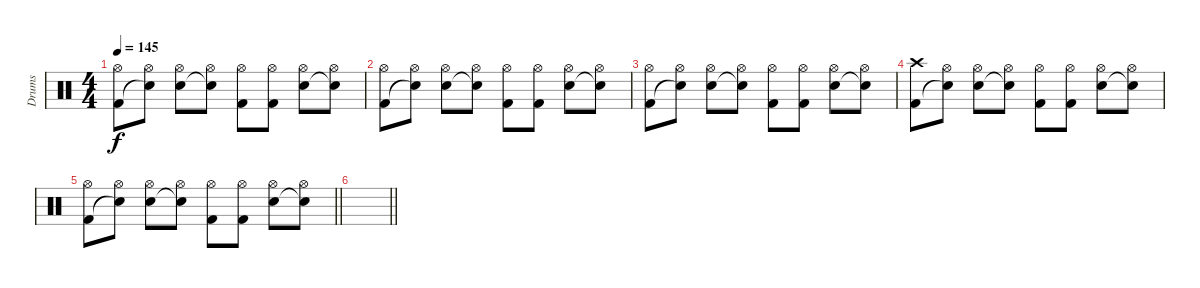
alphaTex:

\track ("Drums" "Drums") {instrument percussion}
\staff {score}
\articulation defaults
\ts (4 4)
\tempo 145
\clef neutral
\ks c
("Hi-Hat (open)" "Kick (hit) 2").8{dy f} ("Hi-Hat (open)" "Snare (hit)"{t}).8 ("Hi-Hat (open)" "Electric Snare (hit)").8 ("Hi-Hat (open)" "Snare (hit)"{t}).8 ("Hi-Hat (open)" "Kick (hit) 2").8 ("Hi-Hat (open)" "Kick (hit) 2").8 ("Hi-Hat (open)" "Electric Snare (hit)").8 ("Hi-Hat (open)" "Snare (hit)"{t}).8 |
("Hi-Hat (open)" "Kick (hit) 2").8 ("Hi-Hat (open)" "Snare (hit)"{t}).8 ("Hi-Hat (open)" "Electric Snare (hit)").8 ("Hi-Hat (open)" "Snare (hit)"{t}).8 ("Hi-Hat (open)" "Kick (hit) 2").8 ("Hi-Hat (open)" "Kick (hit) 2").8 ("Hi-Hat (open)" "Electric Snare (hit)").8 ("Hi-Hat (open)" "Snare (hit)"{t}).8 |
("Hi-Hat (open)" "Kick (hit) 2").8 ("Hi-Hat (open)" "Snare (hit)"{t}).8 ("Hi-Hat (open)" "Electric Snare (hit)").8 ("Hi-Hat (open)" "Snare (hit)"{t}).8 ("Hi-Hat (open)" "Kick (hit) 2").8 ("Hi-Hat (open)" "Kick (hit) 2").8 ("Hi-Hat (open)" "Electric Snare (hit)").8 ("Hi-Hat (open)" "Snare (hit)"{t}).8 |
("Crash high (hit)" "Kick (hit) 2").8 ("Hi-Hat (open)" "Snare (hit)"{t}).8 ("Hi-Hat (open)" "Electric Snare (hit)").8 ("Hi-Hat (open)" "Snare (hit)"{t}).8 ("Hi-Hat (open)" "Kick (hit) 2").8 ("Hi-Hat (open)" "Kick (hit) 2").8 ("Hi-Hat (open)" "Electric Snare (hit)").8 ("Hi-Hat (open)" "Snare (hit)"{t}).8 |
\barLineRight lightlight
("Hi-Hat (open)" "Kick (hit) 2").8 ("Hi-Hat (open)" "Snare (hit)"{t}).8 ("Hi-Hat (open)" "Electric Snare (hit)").8 ("Hi-Hat (open)" "Snare (hit)"{t}).8 ("Hi-Hat (open)" "Kick (hit) 2").8 ("Hi-Hat (open)" "Kick (hit) 2").8 ("Hi-Hat (open)" "Electric Snare (hit)").8 ("Hi-Hat (open)" "Snare (hit)"{t}).8 |
\barLineRight lightlight
